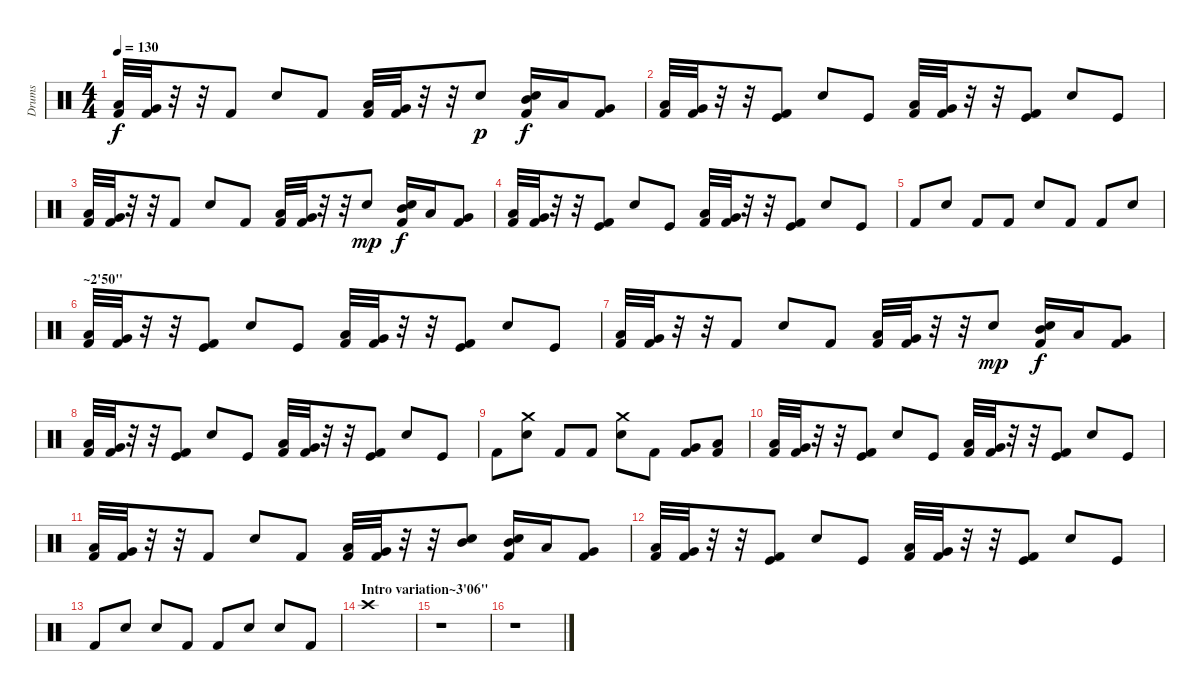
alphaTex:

\track ("Drums" "Drums") {instrument percussion}
\staff {score}
\articulation defaults
\ts (4 4)
\tempo 130
\clef neutral
\ks c
("Low Tom (hit)" "Kick (hit) 2").32{dy f} ("Very Low Tom (hit)" "Kick (hit) 2").32 r.32 r.32 "Kick (hit) 2".8 "Electric Snare (hit)".8 "Kick (hit) 2".8 ("Low Tom (hit)" "Kick (hit) 2").32 ("Very Low Tom (hit)" "Kick (hit) 2").32 r.32 r.32 "Electric Snare (hit)".8{dy p} ("Mid Tom (hit)" "Kick (hit) 2" "Electric Snare (hit)").16{dy f} "Low Tom (hit)".16 ("Kick (hit) 2" "Very Low Tom (hit)").8 |
("Low Tom (hit)" "Kick (hit) 2").32 ("Very Low Tom (hit)" "Kick (hit) 2").32 r.32 r.32 ("Kick (hit)" "Kick (hit) 2").8 "Electric Snare (hit)".8 "Kick (hit)".8 ("Low Tom (hit)" "Kick (hit) 2").32 ("Very Low Tom (hit)" "Kick (hit) 2").32 r.32 r.32 ("Kick (hit)" "Kick (hit) 2").8 "Electric Snare (hit)".8 "Kick (hit)".8 |
("Low Tom (hit)" "Kick (hit) 2").32 ("Very Low Tom (hit)" "Kick (hit) 2").32 r.32 r.32 "Kick (hit) 2".8 "Electric Snare (hit)".8 "Kick (hit) 2".8 ("Low Tom (hit)" "Kick (hit) 2").32 ("Very Low Tom (hit)" "Kick (hit) 2").32 r.32 r.32 "Electric Snare (hit)".8{dy mp} ("Mid Tom (hit)" "Electric Snare (hit)" "Kick (hit) 2").16{dy f} "Low Tom (hit)".16 ("Kick (hit) 2" "Very Low Tom (hit)").8 |
("Low Tom (hit)" "Kick (hit) 2").32 ("Very Low Tom (hit)" "Kick (hit) 2").32 r.32 r.32 ("Kick (hit)" "Kick (hit) 2").8 "Electric Snare (hit)".8 "Kick (hit)".8 ("Low Tom (hit)" "Kick (hit) 2").32 ("Very Low Tom (hit)" "Kick (hit) 2").32 r.32 r.32 ("Kick (hit)" "Kick (hit) 2").8 "Electric Snare (hit)".8 "Kick (hit)".8 |
"Kick (hit) 2".8 "Electric Snare (hit)".8 "Kick (hit) 2".8 "Kick (hit) 2".8 "Electric Snare (hit)".8 "Kick (hit) 2".8 "Kick (hit) 2".8 "Electric Snare (hit)".8 |
\section ("" "~2'50\"")
("Low Tom (hit)" "Kick (hit) 2").32 ("Very Low Tom (hit)" "Kick (hit) 2").32 r.32 r.32 ("Kick (hit)" "Kick (hit) 2").8 "Electric Snare (hit)".8 "Kick (hit)".8 ("Low Tom (hit)" "Kick (hit) 2").32 ("Very Low Tom (hit)" "Kick (hit) 2").32 r.32 r.32 ("Kick (hit)" "Kick (hit) 2").8 "Electric Snare (hit)".8 "Kick (hit)".8 |
("Low Tom (hit)" "Kick (hit) 2").32 ("Very Low Tom (hit)" "Kick (hit) 2").32 r.32 r.32 "Kick (hit) 2".8 "Electric Snare (hit)".8 "Kick (hit) 2".8 ("Low Tom (hit)" "Kick (hit) 2").32 ("Very Low Tom (hit)" "Kick (hit) 2").32 r.32 r.32 "Electric Snare (hit)".8{dy mp} ("Mid Tom (hit)" "Electric Snare (hit)" "Kick (hit) 2").16{dy f} "Low Tom (hit)".16 ("Kick (hit) 2" "Very Low Tom (hit)").8 |
("Low Tom (hit)" "Kick (hit) 2").32 ("Very Low Tom (hit)" "Kick (hit) 2").32 r.32 r.32 ("Kick (hit)" "Kick (hit) 2").8 "Electric Snare (hit)".8 "Kick (hit)".8 ("Low Tom (hit)" "Kick (hit) 2").32 ("Very Low Tom (hit)" "Kick (hit) 2").32 r.32 r.32 ("Kick (hit)" "Kick (hit) 2").8 "Electric Snare (hit)".8 "Kick (hit)".8 |
"Kick (hit) 2".8 ("Electric Snare (hit)" "Crash medium (hit)").8 "Kick (hit) 2".8 "Kick (hit) 2".8 ("Electric Snare (hit)" "Crash medium (hit)").8 "Kick (hit) 2".8 ("Very Low Tom (hit)" "Kick (hit) 2").8 ("Low Floor Tom (hit)" "Kick (hit) 2").8 |
("Low Tom (hit)" "Kick (hit) 2").32 ("Very Low Tom (hit)" "Kick (hit) 2").32 r.32 r.32 ("Kick (hit)" "Kick (hit) 2").8 "Electric Snare (hit)".8 "Kick (hit)".8 ("Low Tom (hit)" "Kick (hit) 2").32 ("Very Low Tom (hit)" "Kick (hit) 2").32 r.32 r.32 ("Kick (hit)" "Kick (hit) 2").8 "Electric Snare (hit)".8 "Kick (hit)".8 |
("Low Tom (hit)" "Kick (hit) 2").32 ("Very Low Tom (hit)" "Kick (hit) 2").32 r.32 r.32 "Kick (hit) 2".8 "Electric Snare (hit)".8 "Kick (hit) 2".8 ("Low Tom (hit)" "Kick (hit) 2").32 ("Very Low Tom (hit)" "Kick (hit) 2").32 r.32 r.32 ("Electric Snare (hit)" "Mid Tom (hit)").8 ("Mid Tom (hit)" "Electric Snare (hit)" "Kick (hit) 2").16 "Low Tom (hit)".16 ("Kick (hit) 2" "Very Low Tom (hit)").8 |
("Low Tom (hit)" "Kick (hit) 2").32 ("Very Low Tom (hit)" "Kick (hit) 2").32 r.32 r.32 ("Kick (hit)" "Kick (hit) 2").8 "Electric Snare (hit)".8 "Kick (hit)".8 ("Low Tom (hit)" "Kick (hit) 2").32 ("Very Low Tom (hit)" "Kick (hit) 2").32 r.32 r.32 ("Kick (hit)" "Kick (hit) 2").8 "Electric Snare (hit)".8 "Kick (hit)".8 |
"Kick (hit) 2".8 "Electric Snare (hit)".8 "Electric Snare (hit)".8 "Kick (hit) 2".8 "Kick (hit) 2".8 "Electric Snare (hit)".8 "Electric Snare (hit)".8 "Kick (hit) 2".8 |
\section ("" "Intro variation~3'06\"")
"Crash high (hit)".1 |
r.1 |
r.1
